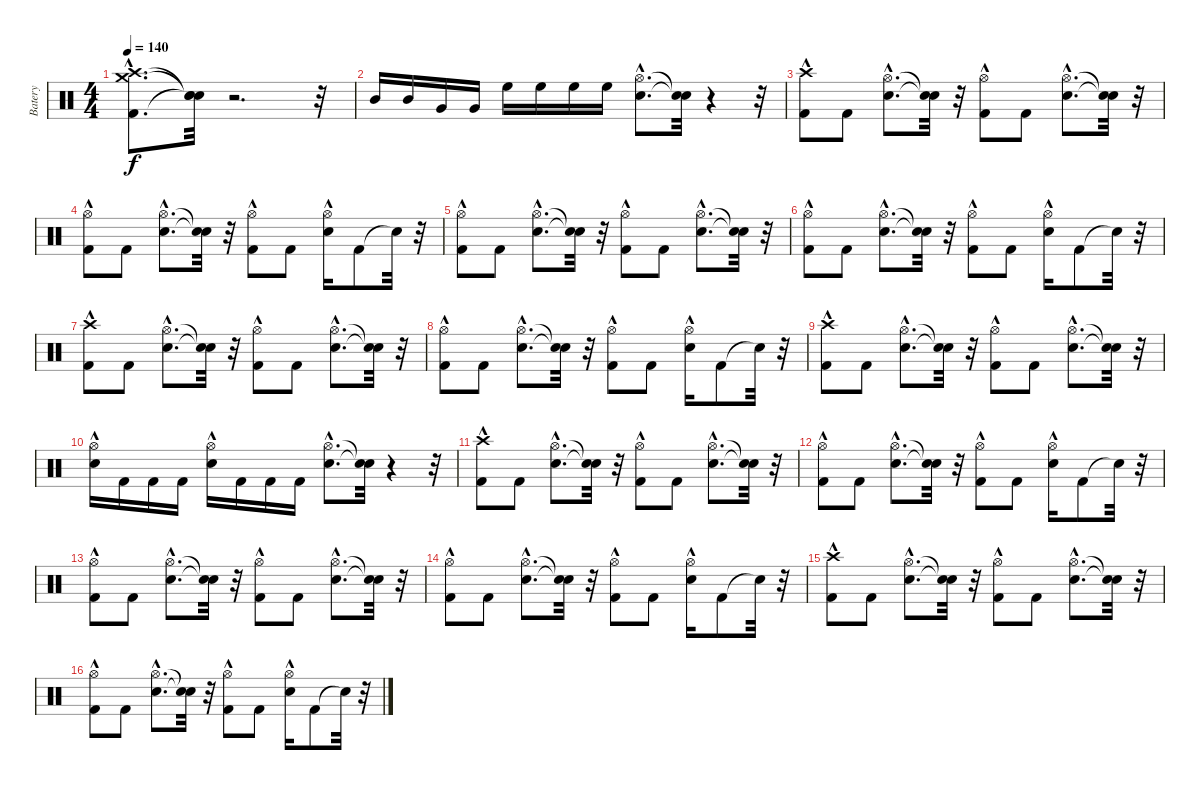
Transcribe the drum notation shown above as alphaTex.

\track ("Batery" "Batery") {instrument percussion}
\staff {score}
\articulation defaults
\ts (4 4)
\tempo 140
\clef neutral
\ks c
("Kick (hit) 2"{hac} "Crash high (hit)"{hac} "Crash medium (hit)"{hac}).8{d dy f} ("Snare (hit)"{t} "Snare (hit)"{t} "Snare (hit)"{t}).32 r.2{d} r.32 |
"Mid Tom (hit)".16 "Mid Tom (hit)".16 "Very Low Tom (hit)".16 "Very Low Tom (hit)".16 "High Floor Tom (hit)".16 "High Floor Tom (hit)".16 "High Floor Tom (hit)".16 "High Floor Tom (hit)".16 ("Snare (hit) 2"{hac} "Hi-Hat (open)"{hac}).8{d} ("Snare (hit)"{t} "Snare (hit)"{t}).32 r.4 r.32 |
("Kick (hit) 2" "Crash high (hit)"{hac}).8 "Kick (hit) 2".8 ("Snare (hit) 2"{hac} "Hi-Hat (open)"{hac}).8{d} ("Snare (hit)"{t} "Snare (hit)"{t}).32 r.32 ("Kick (hit) 2" "Hi-Hat (open)"{hac}).8 "Kick (hit) 2".8 ("Hi-Hat (open)"{hac} "Snare (hit) 2"{hac}).8{d} ("Snare (hit)"{t} "Snare (hit)"{t}).32 r.32 |
("Kick (hit) 2" "Hi-Hat (open)"{hac}).8 "Kick (hit) 2".8 ("Snare (hit) 2"{hac} "Hi-Hat (open)"{hac}).8{d} ("Snare (hit)"{t} "Snare (hit)"{t}).32 r.32 ("Kick (hit) 2" "Hi-Hat (open)"{hac}).8 "Kick (hit) 2".8 ("Hi-Hat (open)"{hac} "Snare (hit) 2"{hac}).16 "Kick (hit) 2".8 "Snare (hit)"{t}.32 r.32 |
("Kick (hit) 2" "Hi-Hat (open)"{hac}).8 "Kick (hit) 2".8 ("Snare (hit) 2"{hac} "Hi-Hat (open)"{hac}).8{d} ("Snare (hit)"{t} "Snare (hit)"{t}).32 r.32 ("Kick (hit) 2" "Hi-Hat (open)"{hac}).8 "Kick (hit) 2".8 ("Hi-Hat (open)"{hac} "Snare (hit) 2"{hac}).8{d} ("Snare (hit)"{t} "Snare (hit)"{t}).32 r.32 |
("Kick (hit) 2" "Hi-Hat (open)"{hac}).8 "Kick (hit) 2".8 ("Snare (hit) 2"{hac} "Hi-Hat (open)"{hac}).8{d} ("Snare (hit)"{t} "Snare (hit)"{t}).32 r.32 ("Kick (hit) 2" "Hi-Hat (open)"{hac}).8 "Kick (hit) 2".8 ("Hi-Hat (open)"{hac} "Snare (hit) 2"{hac}).16 "Kick (hit) 2".8 "Snare (hit)"{t}.32 r.32 |
("Kick (hit) 2" "Crash high (hit)"{hac}).8 "Kick (hit) 2".8 ("Snare (hit) 2"{hac} "Hi-Hat (open)"{hac}).8{d} ("Snare (hit)"{t} "Snare (hit)"{t}).32 r.32 ("Kick (hit) 2" "Hi-Hat (open)"{hac}).8 "Kick (hit) 2".8 ("Hi-Hat (open)"{hac} "Snare (hit) 2"{hac}).8{d} ("Snare (hit)"{t} "Snare (hit)"{t}).32 r.32 |
("Kick (hit) 2" "Hi-Hat (open)"{hac}).8 "Kick (hit) 2".8 ("Snare (hit) 2"{hac} "Hi-Hat (open)"{hac}).8{d} ("Snare (hit)"{t} "Snare (hit)"{t}).32 r.32 ("Kick (hit) 2" "Hi-Hat (open)"{hac}).8 "Kick (hit) 2".8 ("Hi-Hat (open)"{hac} "Snare (hit) 2"{hac}).16 "Kick (hit) 2".8 "Snare (hit)"{t}.32 r.32 |
("Kick (hit) 2" "Crash high (hit)"{hac}).8 "Kick (hit) 2".8 ("Snare (hit) 2"{hac} "Hi-Hat (open)"{hac}).8{d} ("Snare (hit)"{t} "Snare (hit)"{t}).32 r.32 ("Kick (hit) 2" "Hi-Hat (open)"{hac}).8 "Kick (hit) 2".8 ("Hi-Hat (open)"{hac} "Snare (hit) 2"{hac}).8{d} ("Snare (hit)"{t} "Snare (hit)"{t}).32 r.32 |
("Snare (hit) 2"{hac} "Hi-Hat (open)"{hac}).16 "Kick (hit) 2".16 "Kick (hit) 2".16 "Kick (hit) 2".16 ("Snare (hit) 2"{hac} "Hi-Hat (open)"{hac}).16 "Kick (hit) 2".16 "Kick (hit) 2".16 "Kick (hit) 2".16 ("Snare (hit) 2"{hac} "Hi-Hat (open)"{hac}).8{d} ("Snare (hit)"{t} "Snare (hit)"{t}).32 r.4 r.32 |
("Kick (hit) 2" "Crash high (hit)"{hac}).8 "Kick (hit) 2".8 ("Snare (hit) 2"{hac} "Hi-Hat (open)"{hac}).8{d} ("Snare (hit)"{t} "Snare (hit)"{t}).32 r.32 ("Kick (hit) 2" "Hi-Hat (open)"{hac}).8 "Kick (hit) 2".8 ("Hi-Hat (open)"{hac} "Snare (hit) 2"{hac}).8{d} ("Snare (hit)"{t} "Snare (hit)"{t}).32 r.32 |
("Kick (hit) 2" "Hi-Hat (open)"{hac}).8 "Kick (hit) 2".8 ("Snare (hit) 2"{hac} "Hi-Hat (open)"{hac}).8{d} ("Snare (hit)"{t} "Snare (hit)"{t}).32 r.32 ("Kick (hit) 2" "Hi-Hat (open)"{hac}).8 "Kick (hit) 2".8 ("Hi-Hat (open)"{hac} "Snare (hit) 2"{hac}).16 "Kick (hit) 2".8 "Snare (hit)"{t}.32 r.32 |
("Kick (hit) 2" "Hi-Hat (open)"{hac}).8 "Kick (hit) 2".8 ("Snare (hit) 2"{hac} "Hi-Hat (open)"{hac}).8{d} ("Snare (hit)"{t} "Snare (hit)"{t}).32 r.32 ("Kick (hit) 2" "Hi-Hat (open)"{hac}).8 "Kick (hit) 2".8 ("Hi-Hat (open)"{hac} "Snare (hit) 2"{hac}).8{d} ("Snare (hit)"{t} "Snare (hit)"{t}).32 r.32 |
("Kick (hit) 2" "Hi-Hat (open)"{hac}).8 "Kick (hit) 2".8 ("Snare (hit) 2"{hac} "Hi-Hat (open)"{hac}).8{d} ("Snare (hit)"{t} "Snare (hit)"{t}).32 r.32 ("Kick (hit) 2" "Hi-Hat (open)"{hac}).8 "Kick (hit) 2".8 ("Hi-Hat (open)"{hac} "Snare (hit) 2"{hac}).16 "Kick (hit) 2".8 "Snare (hit)"{t}.32 r.32 |
("Kick (hit) 2" "Crash high (hit)"{hac}).8 "Kick (hit) 2".8 ("Snare (hit) 2"{hac} "Hi-Hat (open)"{hac}).8{d} ("Snare (hit)"{t} "Snare (hit)"{t}).32 r.32 ("Kick (hit) 2" "Hi-Hat (open)"{hac}).8 "Kick (hit) 2".8 ("Hi-Hat (open)"{hac} "Snare (hit) 2"{hac}).8{d} ("Snare (hit)"{t} "Snare (hit)"{t}).32 r.32 |
("Kick (hit) 2" "Hi-Hat (open)"{hac}).8 "Kick (hit) 2".8 ("Snare (hit) 2"{hac} "Hi-Hat (open)"{hac}).8{d} ("Snare (hit)"{t} "Snare (hit)"{t}).32 r.32 ("Kick (hit) 2" "Hi-Hat (open)"{hac}).8 "Kick (hit) 2".8 ("Hi-Hat (open)"{hac} "Snare (hit) 2"{hac}).16 "Kick (hit) 2".8 "Snare (hit)"{t}.32 r.32
